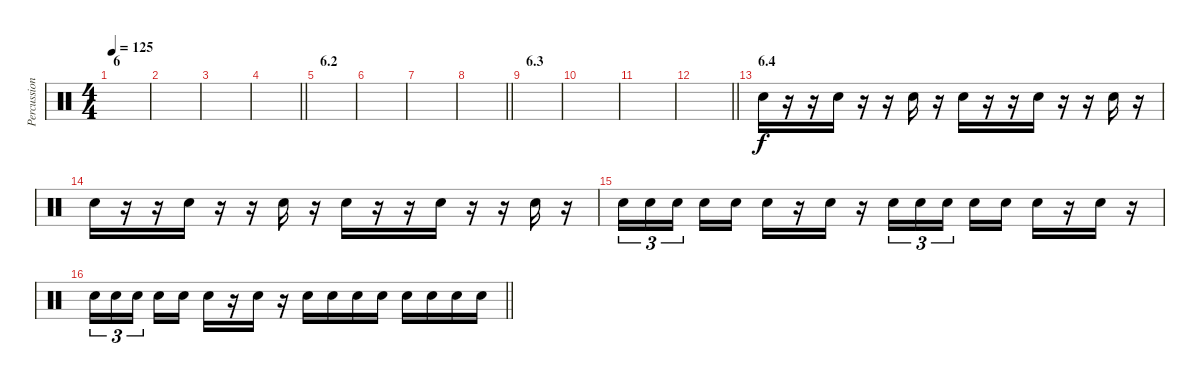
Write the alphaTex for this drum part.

\track ("Percussion" "Percussion") {instrument percussion}
\staff {score}
\articulation defaults
\ts (4 4)
\section ("" "6")
\tempo 125
\clef neutral
\ks c
|
|
|
\barLineRight lightlight
|
\section ("" "6.2")
|
|
|
\barLineRight lightlight
|
\section ("" "6.3")
|
|
|
\barLineRight lightlight
|
\section ("" "6.4")
"Snare (hit) 2".16 r.16 r.16 "Snare (hit) 2".16 r.16 r.16 "Snare (hit) 2".16 r.16 "Snare (hit) 2".16 r.16 r.16 "Snare (hit) 2".16 r.16 r.16 "Snare (hit) 2".16 r.16 |
"Snare (hit) 2".16 r.16 r.16 "Snare (hit) 2".16 r.16 r.16 "Snare (hit) 2".16 r.16 "Snare (hit) 2".16 r.16 r.16 "Snare (hit) 2".16 r.16 r.16 "Snare (hit) 2".16 r.16 |
"Snare (hit) 2".16{tu (3 2)} "Snare (hit) 2".16{tu (3 2)} "Snare (hit) 2".16{tu (3 2) beam splitsecondary} "Snare (hit) 2".16 "Snare (hit) 2".16 "Snare (hit) 2".16 r.16 "Snare (hit) 2".16 r.16 "Snare (hit) 2".16{tu (3 2)} "Snare (hit) 2".16{tu (3 2)} "Snare (hit) 2".16{tu (3 2) beam splitsecondary} "Snare (hit) 2".16 "Snare (hit) 2".16 "Snare (hit) 2".16 r.16 "Snare (hit) 2".16 r.16 |
\barLineRight lightlight "Snare (hit) 2".16{tu (3 2)} "Snare (hit) 2".16{tu (3 2)} "Snare (hit) 2".16{tu (3 2) beam splitsecondary} "Snare (hit) 2".16 "Snare (hit) 2".16 "Snare (hit) 2".16
r.16 "Snare (hit) 2".16 r.16 "Snare (hit) 2".16 "Snare (hit) 2".16 "Snare (hit) 2".16 "Snare (hit) 2".16 "Snare (hit) 2".16 "Snare (hit) 2".16 "Snare (hit) 2".16 "Snare (hit) 2".16
